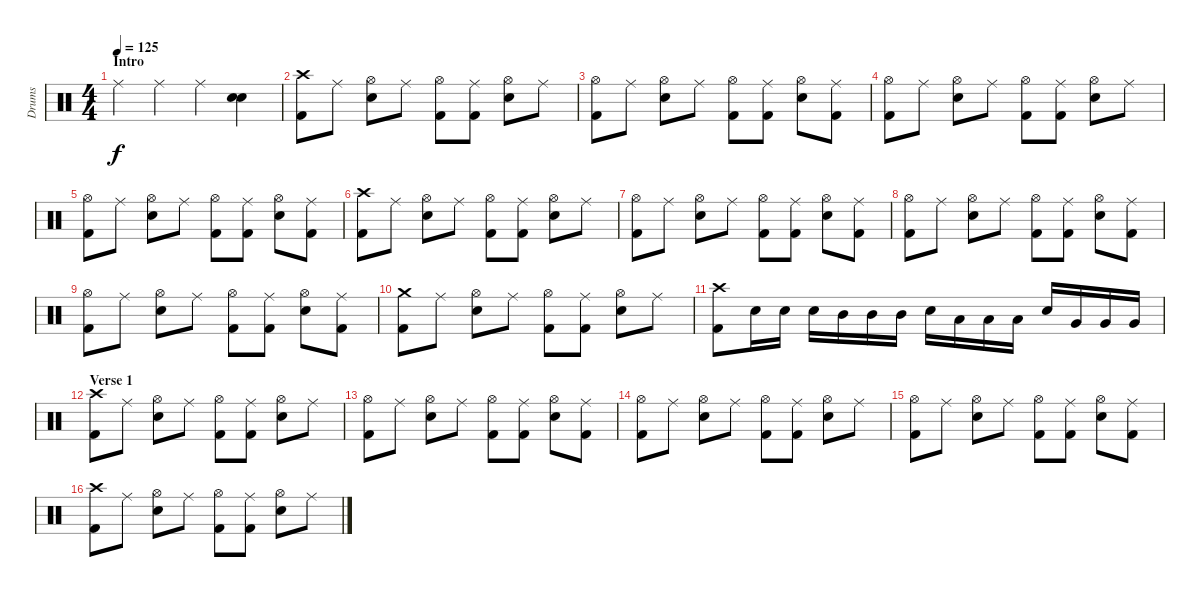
\track ("Drums" "Drums") {instrument percussion}
\staff {score}
\articulation defaults
\ts (4 4)
\section ("" "Intro")
\tempo 125
\clef neutral
\ks c "Ride (middle)".4{dy f} "Ride (middle)".4 "Ride (middle)".4
("Electric Snare (hit)" "Snare (hit) 2").4 |
("Crash high (hit)" "Kick (hit) 2").8 "Ride (middle)".8 ("Hi-Hat (open)" "Electric Snare (hit)").8 "Ride (middle)".8 ("Hi-Hat (open)" "Kick (hit) 2").8 ("Ride (middle)" "Kick (hit) 2").8 ("Hi-Hat (open)" "Electric Snare (hit)").8 "Ride (middle)".8 |
("Hi-Hat (open)" "Kick (hit) 2").8 "Ride (middle)".8 ("Hi-Hat (open)" "Electric Snare (hit)").8 "Ride (middle)".8 ("Hi-Hat (open)" "Kick (hit) 2").8 ("Ride (middle)" "Kick (hit) 2").8 ("Hi-Hat (open)" "Electric Snare (hit)").8 ("Ride (middle)" "Kick (hit) 2").8 |
("Hi-Hat (open)" "Kick (hit) 2").8 "Ride (middle)".8 ("Hi-Hat (open)" "Electric Snare (hit)").8 "Ride (middle)".8 ("Hi-Hat (open)" "Kick (hit) 2").8 ("Ride (middle)" "Kick (hit) 2").8 ("Hi-Hat (open)" "Electric Snare (hit)").8 "Ride (middle)".8 |
("Hi-Hat (open)" "Kick (hit) 2").8 "Ride (middle)".8 ("Hi-Hat (open)" "Electric Snare (hit)").8 "Ride (middle)".8 ("Hi-Hat (open)" "Kick (hit) 2").8 ("Ride (middle)" "Kick (hit) 2").8 ("Hi-Hat (open)" "Electric Snare (hit)").8 ("Ride (middle)" "Kick (hit) 2").8 |
("Crash high (hit)" "Kick (hit) 2").8 "Ride (middle)".8 ("Hi-Hat (open)" "Electric Snare (hit)").8 "Ride (middle)".8 ("Hi-Hat (open)" "Kick (hit) 2").8 ("Ride (middle)" "Kick (hit) 2").8 ("Hi-Hat (open)" "Electric Snare (hit)").8 "Ride (middle)".8 |
("Hi-Hat (open)" "Kick (hit) 2").8 "Ride (middle)".8 ("Hi-Hat (open)" "Electric Snare (hit)").8 "Ride (middle)".8 ("Hi-Hat (open)" "Kick (hit) 2").8 ("Ride (middle)" "Kick (hit) 2").8 ("Hi-Hat (open)" "Electric Snare (hit)").8 ("Ride (middle)" "Kick (hit) 2").8 |
("Hi-Hat (open)" "Kick (hit) 2").8 "Ride (middle)".8 ("Hi-Hat (open)" "Electric Snare (hit)").8 "Ride (middle)".8 ("Hi-Hat (open)" "Kick (hit) 2").8 ("Ride (middle)" "Kick (hit) 2").8 ("Hi-Hat (open)" "Electric Snare (hit)").8 ("Ride (middle)" "Kick (hit) 2").8 |
("Hi-Hat (open)" "Kick (hit) 2").8 "Ride (middle)".8 ("Hi-Hat (open)" "Electric Snare (hit)").8 "Ride (middle)".8 ("Hi-Hat (open)" "Kick (hit) 2").8 ("Ride (middle)" "Kick (hit) 2").8 ("Hi-Hat (open)" "Electric Snare (hit)").8 ("Ride (middle)" "Kick (hit) 2").8 |
("Crash medium (hit)" "Kick (hit) 2").8 "Ride (middle)".8 ("Hi-Hat (open)" "Electric Snare (hit)").8 "Ride (middle)".8 ("Hi-Hat (open)" "Kick (hit) 2").8 ("Ride (middle)" "Kick (hit) 2").8 ("Hi-Hat (open)" "Electric Snare (hit)").8 "Ride (middle)".8 |
("Crash high (hit)" "Kick (hit) 2").8 "Electric Snare (hit)".16 "Electric Snare (hit)".16 "Electric Snare (hit)".16 "Mid Tom (hit)".16 "Mid Tom (hit)".16 "Mid Tom (hit)".16 "Electric Snare (hit)".16 "Low Tom (hit)".16 "Low Tom (hit)".16 "Low Tom (hit)".16 "Electric Snare (hit)".16 "Very Low Tom (hit)".16 "Very Low Tom (hit)".16 "Very Low Tom (hit)".16 |
\section ("" "Verse 1")
("Crash high (hit)" "Kick (hit) 2").8 "Ride (middle)".8 ("Hi-Hat (open)" "Electric Snare (hit)").8 "Ride (middle)".8 ("Hi-Hat (open)" "Kick (hit) 2").8 ("Ride (middle)" "Kick (hit) 2").8 ("Hi-Hat (open)" "Electric Snare (hit)").8 "Ride (middle)".8 |
("Hi-Hat (open)" "Kick (hit) 2").8 "Ride (middle)".8 ("Hi-Hat (open)" "Electric Snare (hit)").8 "Ride (middle)".8 ("Hi-Hat (open)" "Kick (hit) 2").8 ("Ride (middle)" "Kick (hit) 2").8 ("Hi-Hat (open)" "Electric Snare (hit)").8 ("Ride (middle)" "Kick (hit) 2").8 |
("Hi-Hat (open)" "Kick (hit) 2").8 "Ride (middle)".8 ("Hi-Hat (open)" "Electric Snare (hit)").8 "Ride (middle)".8 ("Hi-Hat (open)" "Kick (hit) 2").8 ("Ride (middle)" "Kick (hit) 2").8 ("Hi-Hat (open)" "Electric Snare (hit)").8 "Ride (middle)".8 |
("Hi-Hat (open)" "Kick (hit) 2").8 "Ride (middle)".8 ("Hi-Hat (open)" "Electric Snare (hit)").8 "Ride (middle)".8 ("Hi-Hat (open)" "Kick (hit) 2").8 ("Ride (middle)" "Kick (hit) 2").8 ("Hi-Hat (open)" "Electric Snare (hit)").8 ("Ride (middle)" "Kick (hit) 2").8 |
("Crash high (hit)" "Kick (hit) 2").8 "Ride (middle)".8 ("Hi-Hat (open)" "Electric Snare (hit)").8 "Ride (middle)".8 ("Hi-Hat (open)" "Kick (hit) 2").8 ("Ride (middle)" "Kick (hit) 2").8 ("Hi-Hat (open)" "Electric Snare (hit)").8 "Ride (middle)".8
